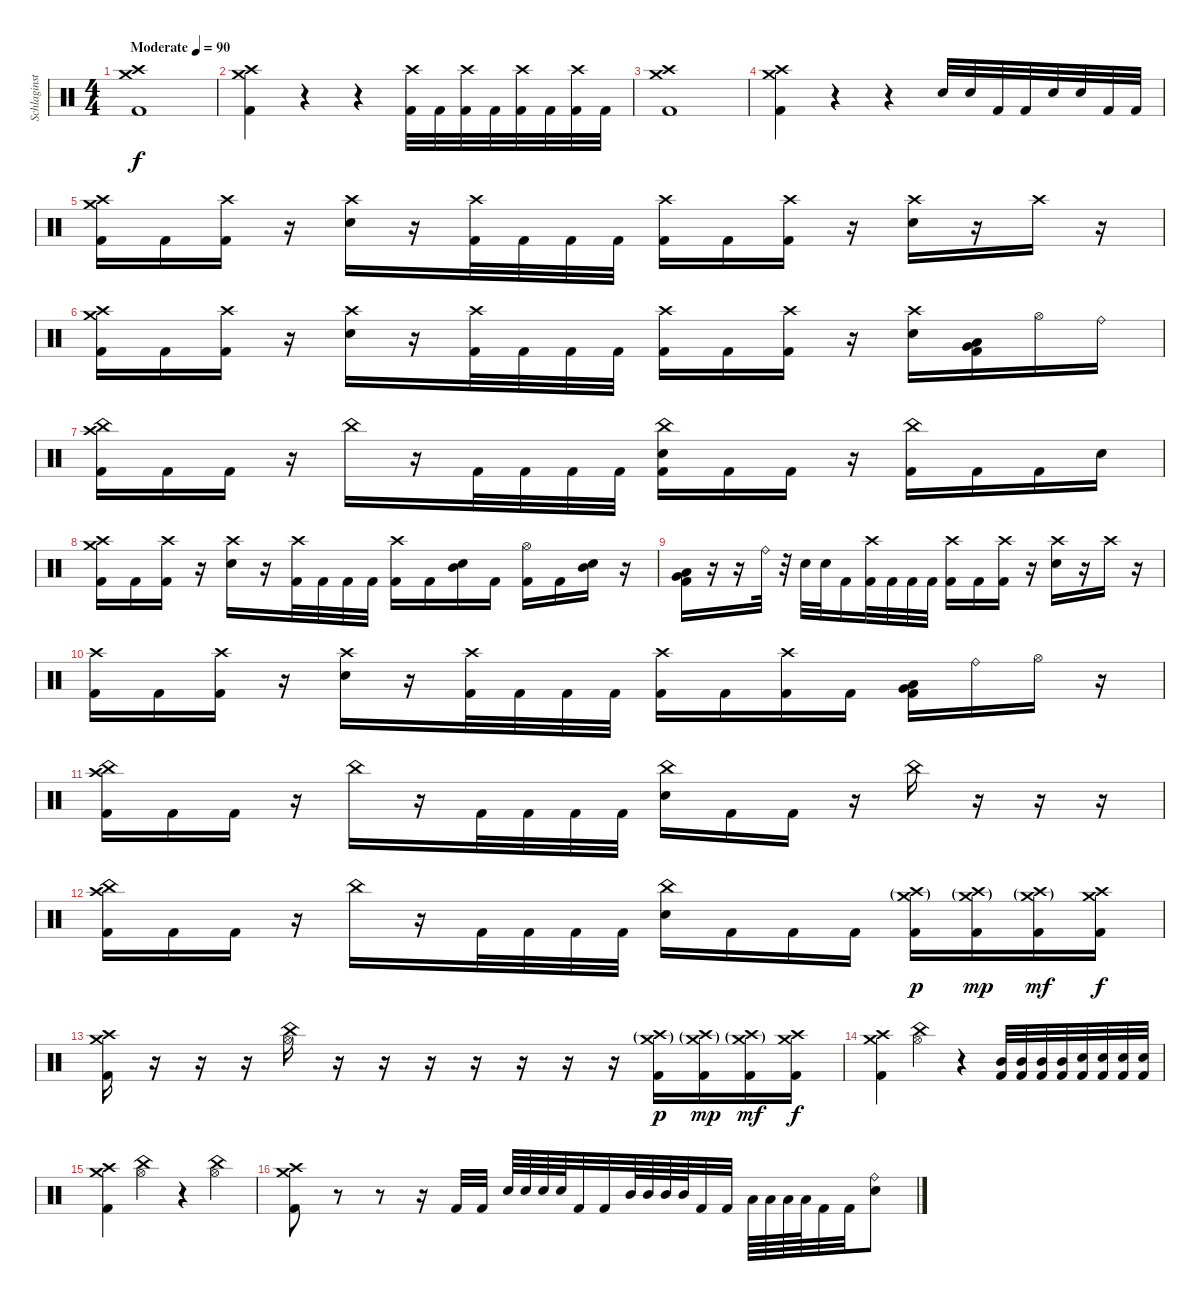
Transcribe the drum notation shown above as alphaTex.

\track ("Schlaginstrumente - Auswahl" "Schlaginst") {instrument percussion}
\staff {score}
\articulation defaults
\ts (4 4)
\tempo (90 "Moderate")
\clef neutral
\ks c
("Crash high (hit)" "Crash medium (hit)" "Kick (hit) 2").1{dy f} |
("Crash high (hit)" "Crash medium (hit)" "Kick (hit) 2").4 r.4 r.4 ("Crash high (hit)" "Kick (hit) 2").32 "Kick (hit) 2".32 ("Crash high (hit)" "Kick (hit) 2").32 "Kick (hit) 2".32 ("Crash high (hit)" "Kick (hit) 2").32 "Kick (hit) 2".32 ("Crash high (hit)" "Kick (hit) 2").32 "Kick (hit) 2".32 |
("Crash high (hit)" "Crash medium (hit)" "Kick (hit) 2").1 |
("Crash high (hit)" "Crash medium (hit)" "Kick (hit) 2").4 r.4 r.4 "Electric Snare (hit)".32 "Electric Snare (hit)".32 "Kick (hit) 2".32 "Kick (hit) 2".32 "Electric Snare (hit)".32 "Electric Snare (hit)".32 "Kick (hit) 2".32 "Kick (hit) 2".32 |
("Crash high (hit)" "Crash medium (hit)" "Kick (hit) 2").16 "Kick (hit) 2".16 ("Crash high (hit)" "Kick (hit) 2").16 r.16 ("Crash high (hit)" "Electric Snare (hit)").16 r.16 ("Crash high (hit)" "Kick (hit) 2").32 "Kick (hit) 2".32 "Kick (hit) 2".32 "Kick (hit) 2".32 ("Crash high (hit)" "Kick (hit) 2").16 "Kick (hit) 2".16 ("Crash high (hit)" "Kick (hit) 2").16 r.16 ("Crash high (hit)" "Electric Snare (hit)").16 r.16 "Crash high (hit)".16 r.16 |
("Crash high (hit)" "Crash medium (hit)" "Kick (hit) 2").16 "Kick (hit) 2".16 ("Crash high (hit)" "Kick (hit) 2").16 r.16 ("Crash high (hit)" "Electric Snare (hit)").16 r.16 ("Crash high (hit)" "Kick (hit) 2").32 "Kick (hit) 2".32 "Kick (hit) 2".32 "Kick (hit) 2".32 ("Crash high (hit)" "Kick (hit) 2").16 "Kick (hit) 2".16 ("Crash high (hit)" "Kick (hit) 2").16 r.16 ("Crash high (hit)" "Electric Snare (hit)").16 ("Very Low Tom (hit)" "Low Floor Tom (hit)" "Kick (hit) 2").16 "Hi-Hat (open)".16 "Ride (bell)".16 |
("Crash high (hit)" "China (hit)" "Kick (hit) 2").16 "Kick (hit) 2".16 "Kick (hit) 2".16 r.16 "China (hit)".16 r.16 "Kick (hit) 2".32 "Kick (hit) 2".32 "Kick (hit) 2".32 "Kick (hit) 2".32 ("China (hit)" "Electric Snare (hit)" "Kick (hit) 2").16 "Kick (hit) 2".16 "Kick (hit) 2".16 r.16 ("China (hit)" "Kick (hit) 2").16 "Kick (hit) 2".16 "Kick (hit) 2".16 "Electric Snare (hit)".16 |
("Crash high (hit)" "Crash medium (hit)" "Kick (hit) 2").16 "Kick (hit) 2".16 ("Crash high (hit)" "Kick (hit) 2").16 r.16 ("Crash high (hit)" "Electric Snare (hit)").16 r.16 ("Crash high (hit)" "Kick (hit) 2").32 "Kick (hit) 2".32 "Kick (hit) 2".32 "Kick (hit) 2".32 ("Crash high (hit)" "Kick (hit) 2").16 "Kick (hit) 2".16 ("Mid Tom (hit)" "Electric Snare (hit)").16 "Kick (hit) 2".16 ("Hi-Hat (open)" "Kick (hit) 2").16 "Kick (hit) 2".16 ("Mid Tom (hit)" "Electric Snare (hit)").16{bd 480} r.16 |
("Low Tom (hit)" "Very Low Tom (hit)" "Kick (hit) 2").16 r.16 r.16 "Ride (bell)".32 r.32 "Electric Snare (hit)".32 "Electric Snare (hit)".32 "Kick (hit) 2".16 ("Crash high (hit)" "Kick (hit) 2").32 "Kick (hit) 2".32 "Kick (hit) 2".32 "Kick (hit) 2".32 ("Crash high (hit)" "Kick (hit) 2").16 "Kick (hit) 2".16 ("Crash high (hit)" "Kick (hit) 2").16 r.16 ("Crash high (hit)" "Electric Snare (hit)").16 r.16 "Crash high (hit)".16 r.16 |
("Crash high (hit)" "Kick (hit) 2").16 "Kick (hit) 2".16 ("Crash high (hit)" "Kick (hit) 2").16 r.16 ("Crash high (hit)" "Electric Snare (hit)").16 r.16 ("Crash high (hit)" "Kick (hit) 2").32 "Kick (hit) 2".32 "Kick (hit) 2".32 "Kick (hit) 2".32 ("Crash high (hit)" "Kick (hit) 2").16 "Kick (hit) 2".16 ("Crash high (hit)" "Kick (hit) 2").16 "Kick (hit) 2".16 ("Very Low Tom (hit)" "Low Floor Tom (hit)" "Kick (hit) 2").16 "Ride (bell)".16 "Hi-Hat (open)".16 r.16 |
("Crash high (hit)" "China (hit)" "Kick (hit) 2").16 "Kick (hit) 2".16 "Kick (hit) 2".16 r.16 "China (hit)".16 r.16 "Kick (hit) 2".32 "Kick (hit) 2".32 "Kick (hit) 2".32 "Kick (hit) 2".32 ("China (hit)" "Electric Snare (hit)").16 "Kick (hit) 2".16 "Kick (hit) 2".16 r.16 "China (hit)".16 r.16 r.16 r.16 |
("Crash high (hit)" "China (hit)" "Kick (hit) 2").16 "Kick (hit) 2".16 "Kick (hit) 2".16 r.16 "China (hit)".16 r.16 "Kick (hit) 2".32 "Kick (hit) 2".32 "Kick (hit) 2".32 "Kick (hit) 2".32 ("China (hit)" "Electric Snare (hit)").16 "Kick (hit) 2".16 "Kick (hit) 2".16 "Kick (hit) 2".16 ("Crash medium (hit)"{g} "Crash high (hit)"{g} "Kick (hit) 2").16{dy p} ("Crash medium (hit)"{g} "Crash high (hit)"{g} "Kick (hit) 2").16{dy mp} ("Crash medium (hit)"{g} "Crash high (hit)"{g} "Kick (hit) 2").16{dy mf} ("Crash medium (hit)" "Crash high (hit)" "Kick (hit) 2").16{dy f} |
("Crash high (hit)" "Crash medium (hit)" "Kick (hit) 2").16 r.16 r.16 r.16 ("China (hit)" "Hi-Hat (open)").16 r.16 r.16 r.16 r.16 r.16 r.16 r.16 ("Crash medium (hit)"{g} "Crash high (hit)"{g} "Kick (hit) 2").16{dy p} ("Crash medium (hit)"{g} "Crash high (hit)"{g} "Kick (hit) 2").16{dy mp} ("Crash medium (hit)"{g} "Crash high (hit)"{g} "Kick (hit) 2").16{dy mf} ("Crash medium (hit)" "Crash high (hit)" "Kick (hit) 2").16{dy f} |
("Crash high (hit)" "Crash medium (hit)" "Kick (hit) 2").4 ("China (hit)" "Hi-Hat (open)").4 r.4 ("Mid Tom (hit)" "Kick (hit) 2").32 ("Mid Tom (hit)" "Kick (hit) 2").32 ("Mid Tom (hit)" "Kick (hit) 2").32 ("Mid Tom (hit)" "Kick (hit) 2").32 ("Electric Snare (hit)" "Kick (hit) 2").32 ("Electric Snare (hit)" "Kick (hit) 2").32 ("Electric Snare (hit)" "Kick (hit) 2").32 ("Electric Snare (hit)" "Kick (hit) 2").32 |
("Crash high (hit)" "Crash medium (hit)" "Kick (hit) 2").4 ("China (hit)" "Hi-Hat (open)").4 r.4 ("China (hit)" "Hi-Hat (open)").4 |
("Crash high (hit)" "Crash medium (hit)" "Kick (hit) 2").8 r.8 r.8 r.16 "Kick (hit) 2".32 "Kick (hit) 2".32 "Electric Snare (hit)".64 "Electric Snare (hit)".64 "Electric Snare (hit)".64 "Electric Snare (hit)".64 "Kick (hit) 2".32 "Kick (hit) 2".32 "Mid Tom (hit)".64 "Mid Tom (hit)".64 "Mid Tom (hit)".64 "Mid Tom (hit)".64 "Kick (hit) 2".32 "Kick (hit) 2".32 "Low Tom (hit)".64 "Low Tom (hit)".64 "Low Tom (hit)".64 "Low Tom (hit)".64 "Kick (hit) 2".32 "Kick (hit) 2".32 ("Ride (bell)" "Electric Snare (hit)").8
